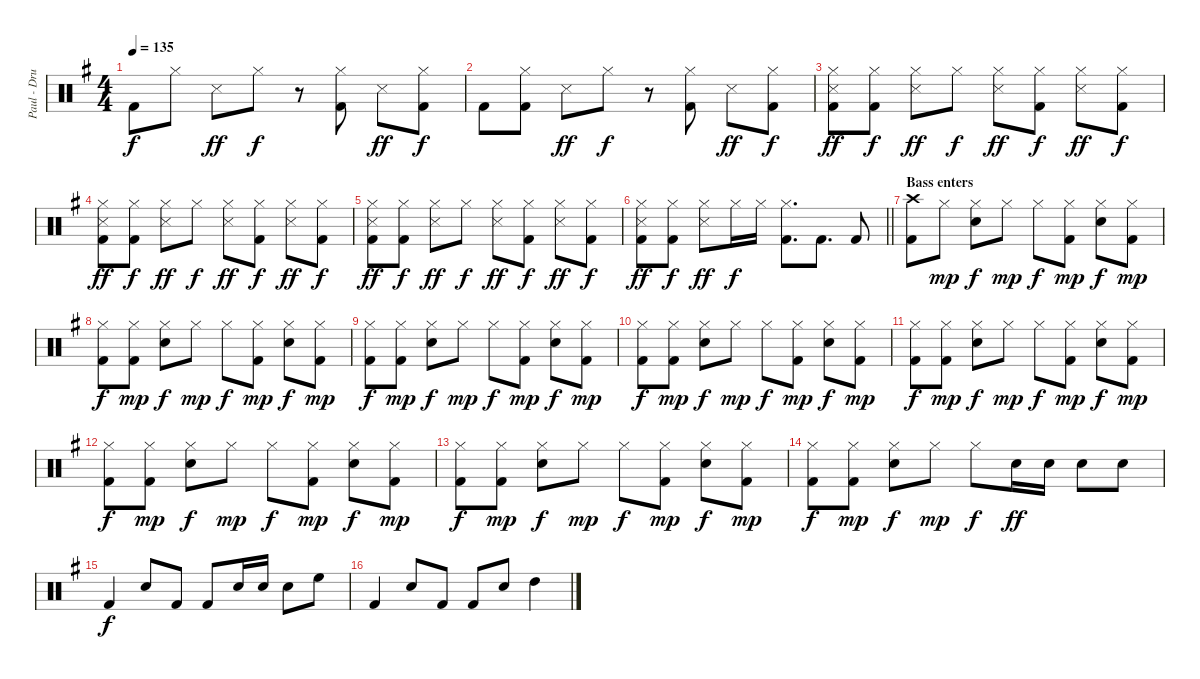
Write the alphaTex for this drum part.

\track ("Paul - Drums" "Paul - Dru") {instrument percussion}
\staff {score}
\articulation defaults
\ts (4 4)
\tempo 135
\clef neutral
\ks g "Kick (hit) 2".8{dy f} "Hi-Hat (closed)".8 "Snare (side stick) 3".8{dy ff} "Hi-Hat (closed)".8{dy f}
r.8 ("Hi-Hat (closed)" "Kick (hit) 2").8 "Snare (side stick) 3".8{dy ff} ("Hi-Hat (closed)" "Kick (hit) 2").8{dy f} |
"Kick (hit) 2".8 ("Hi-Hat (closed)" "Kick (hit) 2").8 "Snare (side stick) 3".8{dy ff} "Hi-Hat (closed)".8{dy f} r.8 ("Hi-Hat (closed)" "Kick (hit) 2").8 "Snare (side stick) 3".8{dy ff} ("Hi-Hat (closed)" "Kick (hit) 2").8{dy f} |
("Hi-Hat (closed)" "Snare (side stick) 3" "Kick (hit) 2").8{dy ff} ("Hi-Hat (closed)" "Kick (hit) 2").8{dy f} ("Hi-Hat (closed)" "Snare (side stick) 3").8{dy ff} "Hi-Hat (closed)".8{dy f} ("Hi-Hat (closed)" "Snare (side stick) 3").8{dy ff} ("Hi-Hat (closed)" "Kick (hit) 2").8{dy f} ("Hi-Hat (closed)" "Snare (side stick) 3").8{dy ff} ("Hi-Hat (closed)" "Kick (hit) 2").8{dy f} |
("Hi-Hat (closed)" "Snare (side stick) 3" "Kick (hit) 2").8{dy ff} ("Hi-Hat (closed)" "Kick (hit) 2").8{dy f} ("Hi-Hat (closed)" "Snare (side stick) 3").8{dy ff} "Hi-Hat (closed)".8{dy f} ("Hi-Hat (closed)" "Snare (side stick) 3").8{dy ff} ("Hi-Hat (closed)" "Kick (hit) 2").8{dy f} ("Hi-Hat (closed)" "Snare (side stick) 3").8{dy ff} ("Hi-Hat (closed)" "Kick (hit) 2").8{dy f} |
("Hi-Hat (closed)" "Snare (side stick) 3" "Kick (hit) 2").8{dy ff} ("Hi-Hat (closed)" "Kick (hit) 2").8{dy f} ("Hi-Hat (closed)" "Snare (side stick) 3").8{dy ff} "Hi-Hat (closed)".8{dy f} ("Hi-Hat (closed)" "Snare (side stick) 3").8{dy ff} ("Hi-Hat (closed)" "Kick (hit) 2").8{dy f} ("Hi-Hat (closed)" "Snare (side stick) 3").8{dy ff} ("Hi-Hat (closed)" "Kick (hit) 2").8{dy f} |
\barLineRight lightlight
("Hi-Hat (closed)" "Snare (side stick) 3" "Kick (hit) 2").8{dy ff} ("Hi-Hat (closed)" "Kick (hit) 2").8{dy f} ("Hi-Hat (closed)" "Snare (side stick) 3").8{dy ff} "Hi-Hat (closed)".16{dy f} "Hi-Hat (closed)".16 ("Hi-Hat (closed)" "Kick (hit) 2").8{d} "Kick (hit) 2".8{d} "Kick (hit) 2".8 |
\section ("" "Bass enters")
("Crash high (hit)" "Kick (hit) 2").8 "Hi-Hat (closed)".8{dy mp} ("Hi-Hat (closed)" "Electric Snare (hit)").8{dy f} "Hi-Hat (closed)".8{dy mp} "Hi-Hat (closed)".8{dy f} ("Hi-Hat (closed)" "Kick (hit) 2").8{dy mp} ("Hi-Hat (closed)" "Electric Snare (hit)").8{dy f} ("Hi-Hat (closed)" "Kick (hit) 2").8{dy mp} |
("Hi-Hat (closed)" "Kick (hit) 2").8{dy f} ("Hi-Hat (closed)" "Kick (hit) 2").8{dy mp} ("Hi-Hat (closed)" "Electric Snare (hit)").8{dy f} "Hi-Hat (closed)".8{dy mp} "Hi-Hat (closed)".8{dy f} ("Hi-Hat (closed)" "Kick (hit) 2").8{dy mp} ("Hi-Hat (closed)" "Electric Snare (hit)").8{dy f} ("Hi-Hat (closed)" "Kick (hit) 2").8{dy mp} |
("Hi-Hat (closed)" "Kick (hit) 2").8{dy f} ("Hi-Hat (closed)" "Kick (hit) 2").8{dy mp} ("Hi-Hat (closed)" "Electric Snare (hit)").8{dy f} "Hi-Hat (closed)".8{dy mp} "Hi-Hat (closed)".8{dy f} ("Hi-Hat (closed)" "Kick (hit) 2").8{dy mp} ("Hi-Hat (closed)" "Electric Snare (hit)").8{dy f} ("Hi-Hat (closed)" "Kick (hit) 2").8{dy mp} |
("Hi-Hat (closed)" "Kick (hit) 2").8{dy f} ("Hi-Hat (closed)" "Kick (hit) 2").8{dy mp} ("Hi-Hat (closed)" "Electric Snare (hit)").8{dy f} "Hi-Hat (closed)".8{dy mp} "Hi-Hat (closed)".8{dy f} ("Hi-Hat (closed)" "Kick (hit) 2").8{dy mp} ("Hi-Hat (closed)" "Electric Snare (hit)").8{dy f} ("Hi-Hat (closed)" "Kick (hit) 2").8{dy mp} |
("Hi-Hat (closed)" "Kick (hit) 2").8{dy f} ("Hi-Hat (closed)" "Kick (hit) 2").8{dy mp} ("Hi-Hat (closed)" "Electric Snare (hit)").8{dy f} "Hi-Hat (closed)".8{dy mp} "Hi-Hat (closed)".8{dy f} ("Hi-Hat (closed)" "Kick (hit) 2").8{dy mp} ("Hi-Hat (closed)" "Electric Snare (hit)").8{dy f} ("Hi-Hat (closed)" "Kick (hit) 2").8{dy mp} |
("Hi-Hat (closed)" "Kick (hit) 2").8{dy f} ("Hi-Hat (closed)" "Kick (hit) 2").8{dy mp} ("Hi-Hat (closed)" "Electric Snare (hit)").8{dy f} "Hi-Hat (closed)".8{dy mp} "Hi-Hat (closed)".8{dy f} ("Hi-Hat (closed)" "Kick (hit) 2").8{dy mp} ("Hi-Hat (closed)" "Electric Snare (hit)").8{dy f} ("Hi-Hat (closed)" "Kick (hit) 2").8{dy mp} |
("Hi-Hat (closed)" "Kick (hit) 2").8{dy f} ("Hi-Hat (closed)" "Kick (hit) 2").8{dy mp} ("Hi-Hat (closed)" "Electric Snare (hit)").8{dy f} "Hi-Hat (closed)".8{dy mp} "Hi-Hat (closed)".8{dy f} ("Hi-Hat (closed)" "Kick (hit) 2").8{dy mp} ("Hi-Hat (closed)" "Electric Snare (hit)").8{dy f} ("Hi-Hat (closed)" "Kick (hit) 2").8{dy mp} |
("Hi-Hat (closed)" "Kick (hit) 2").8{dy f} ("Hi-Hat (closed)" "Kick (hit) 2").8{dy mp} ("Hi-Hat (closed)" "Electric Snare (hit)").8{dy f} "Hi-Hat (closed)".8{dy mp} "Hi-Hat (closed)".8{dy f} "Electric Snare (hit)".16{dy ff} "Electric Snare (hit)".16 "Electric Snare (hit)".8 "Electric Snare (hit)".8 |
"Kick (hit) 2".4{dy f} "Electric Snare (hit)".8 "Kick (hit) 2".8 "Kick (hit) 2".8 "Electric Snare (hit)".16 "Electric Snare (hit)".16 "Electric Snare (hit)".8 "High Floor Tom (hit)".8 |
"Kick (hit) 2".4 "Electric Snare (hit)".8 "Kick (hit) 2".8 "Kick (hit) 2".8 "Electric Snare (hit)".8 "High Tom (hit)".4
